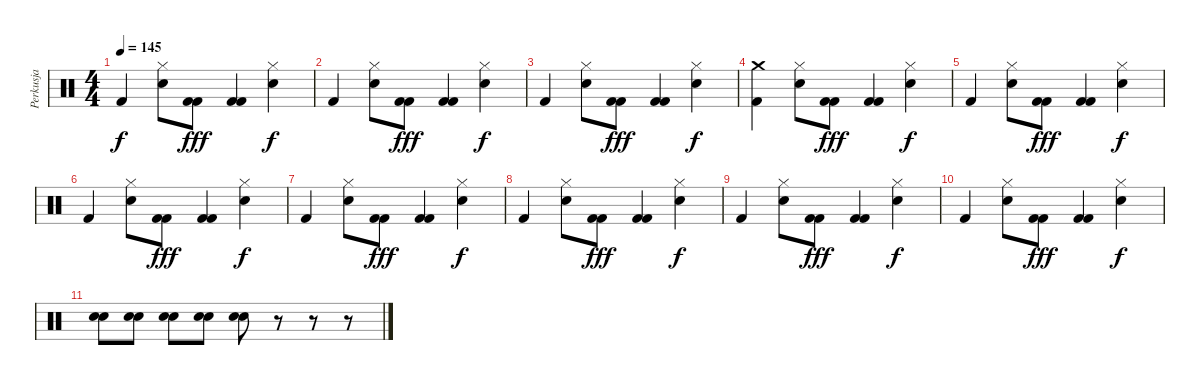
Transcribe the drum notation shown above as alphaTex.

\track ("Perkusja" "Perkusja") {instrument percussion}
\staff {score}
\articulation defaults
\ts (4 4)
\tempo 145
\clef neutral
\ks c "Kick (hit) 2".4{dy f}
("Hi-Hat (closed)" "Snare (hit) 2").8 ("Kick (hit) 2" "Kick (hit) 2").8{dy fff} ("Kick (hit) 2" "Kick (hit) 2").4 ("Hi-Hat (closed)" "Snare (hit) 2").4{dy f} |
"Kick (hit) 2".4 ("Hi-Hat (closed)" "Snare (hit) 2").8 ("Kick (hit) 2" "Kick (hit) 2").8{dy fff} ("Kick (hit) 2" "Kick (hit) 2").4 ("Hi-Hat (closed)" "Snare (hit) 2").4{dy f} |
"Kick (hit) 2".4 ("Hi-Hat (closed)" "Snare (hit) 2").8 ("Kick (hit) 2" "Kick (hit) 2").8{dy fff} ("Kick (hit) 2" "Kick (hit) 2").4 ("Hi-Hat (closed)" "Snare (hit) 2").4{dy f} |
("Kick (hit) 2" "Crash medium (hit)").4 ("Hi-Hat (closed)" "Snare (hit) 2").8 ("Kick (hit) 2" "Kick (hit) 2").8{dy fff} ("Kick (hit) 2" "Kick (hit) 2").4 ("Hi-Hat (closed)" "Snare (hit) 2").4{dy f} |
"Kick (hit) 2".4 ("Hi-Hat (closed)" "Snare (hit) 2").8 ("Kick (hit) 2" "Kick (hit) 2").8{dy fff} ("Kick (hit) 2" "Kick (hit) 2").4 ("Hi-Hat (closed)" "Snare (hit) 2").4{dy f} |
"Kick (hit) 2".4 ("Hi-Hat (closed)" "Snare (hit) 2").8 ("Kick (hit) 2" "Kick (hit) 2").8{dy fff} ("Kick (hit) 2" "Kick (hit) 2").4 ("Hi-Hat (closed)" "Snare (hit) 2").4{dy f} |
"Kick (hit) 2".4 ("Hi-Hat (closed)" "Snare (hit) 2").8 ("Kick (hit) 2" "Kick (hit) 2").8{dy fff} ("Kick (hit) 2" "Kick (hit) 2").4 ("Hi-Hat (closed)" "Snare (hit) 2").4{dy f} |
"Kick (hit) 2".4 ("Hi-Hat (closed)" "Snare (hit) 2").8 ("Kick (hit) 2" "Kick (hit) 2").8{dy fff} ("Kick (hit) 2" "Kick (hit) 2").4 ("Hi-Hat (closed)" "Snare (hit) 2").4{dy f} |
"Kick (hit) 2".4 ("Hi-Hat (closed)" "Snare (hit) 2").8 ("Kick (hit) 2" "Kick (hit) 2").8{dy fff} ("Kick (hit) 2" "Kick (hit) 2").4 ("Hi-Hat (closed)" "Snare (hit) 2").4{dy f} |
"Kick (hit) 2".4 ("Hi-Hat (closed)" "Snare (hit) 2").8 ("Kick (hit) 2" "Kick (hit) 2").8{dy fff} ("Kick (hit) 2" "Kick (hit) 2").4 ("Hi-Hat (closed)" "Snare (hit) 2").4{dy f} |
("Snare (hit) 2" "Snare (hit) 2").8 ("Snare (hit) 2" "Snare (hit) 2").8 ("Snare (hit) 2" "Snare (hit) 2").8 ("Snare (hit) 2" "Snare (hit) 2").8 ("Snare (hit) 2" "Snare (hit) 2").8 r.8 r.8 r.8
